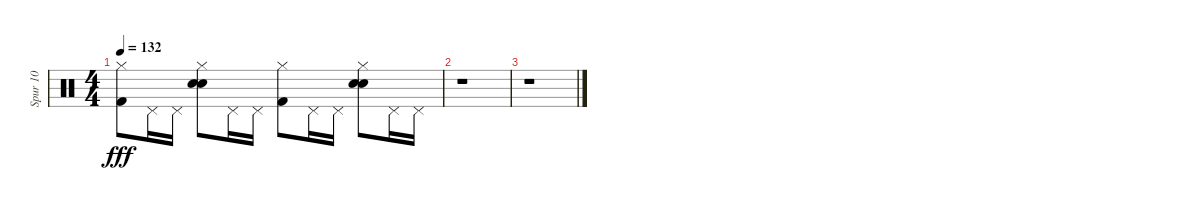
\track ("Spur 10" "Spur 10") {instrument percussion}
\staff {score}
\articulation defaults
\ts (4 4)
\tempo 132
\clef neutral
\ks c
("Kick (hit) 2" "Hi-Hat (closed)").8{dy fff} "Pedal Hi-Hat (hit)".16 "Pedal Hi-Hat (hit)".16 ("Electric Snare (hit)" "Hi-Hat (closed)" "Hand Clap (hit)").8 "Pedal Hi-Hat (hit)".16 "Pedal Hi-Hat (hit)".16 ("Kick (hit) 2" "Hi-Hat (closed)").8 "Pedal Hi-Hat (hit)".16 "Pedal Hi-Hat (hit)".16 ("Electric Snare (hit)" "Hi-Hat (closed)" "Hand Clap (hit)").8 "Pedal Hi-Hat (hit)".16 "Pedal Hi-Hat (hit)".16 |
r.1 |
r.1
